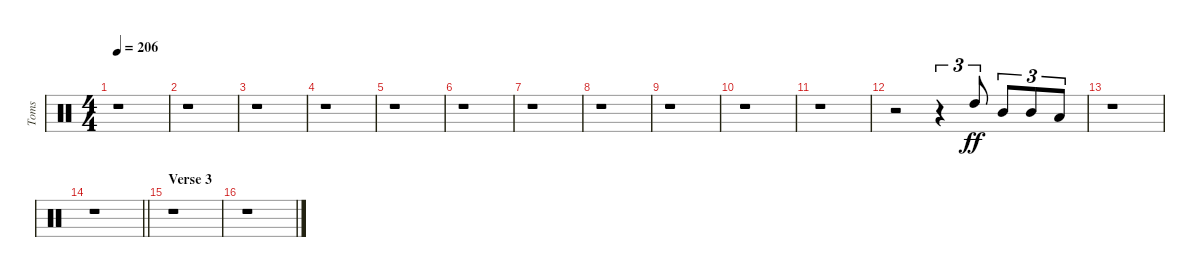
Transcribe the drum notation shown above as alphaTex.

\track ("Toms" "Toms") {instrument percussion}
\staff {score}
\articulation defaults
\ts (4 4)
\tempo 206
\clef neutral
\ks c
r.1{dy pp} |
r.1 |
r.1 |
r.1 |
r.1 |
r.1 |
r.1 |
r.1 |
r.1 |
r.1 |
r.1 |
r.2 r.4{tu (3 2) beam Up} "High Tom (hit)".8{tu (3 2) dy ff beam Up} "Mid Tom (hit)".8{tu (3 2) balance 6 beam Up} "Mid Tom (hit)".8{tu (3 2) beam Up} "Low Tom (hit)".8{tu (3 2) balance 4 beam Up} |
r.1 |
\barLineRight lightlight
r.1 |
\section ("" "Verse 3")
r.1 |
r.1
